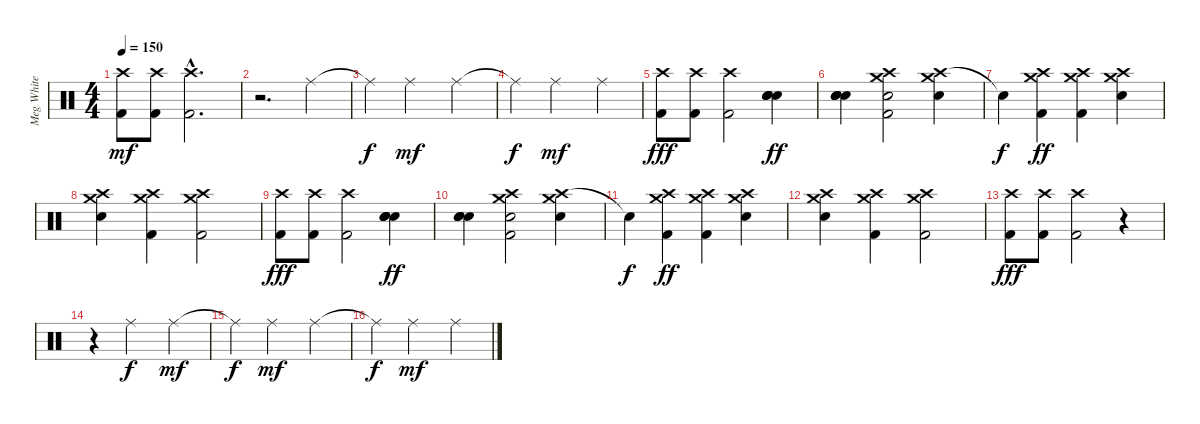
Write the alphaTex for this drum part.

\track ("Meg White" "Meg White") {instrument percussion}
\staff {score}
\articulation defaults
\ts (4 4)
\tempo 150
\clef neutral
\ks c
("Crash high (hit)" "Kick (hit) 2").8{dy mf} ("Crash high (hit)" "Kick (hit) 2").8 ("Crash high (hit)"{hac} "Kick (hit) 2"{hac}).2{d} |
r.2{d} "Ride (middle)".4 |
"Ride (middle)"{t}.4{dy f} "Ride (middle)".2{dy mf} "Ride (middle)".4 |
"Ride (middle)"{t}.4{dy f} "Ride (middle)".2{dy mf} "Ride (middle)".4 |
("Crash high (hit)" "Kick (hit) 2").8{dy fff} ("Crash high (hit)" "Kick (hit) 2").8 ("Crash high (hit)" "Kick (hit) 2").2 ("Snare (hit) 2" "Snare (hit) 2" "Electric Snare (hit)" "Electric Snare (hit)").4{dy ff} |
("Snare (hit) 2" "Snare (hit) 2" "Electric Snare (hit)" "Electric Snare (hit)").4 ("Crash high (hit)" "Crash medium (hit)" "Kick (hit) 2" "Electric Snare (hit)").2 ("Crash high (hit)" "Crash medium (hit)" "Electric Snare (hit)").4 |
"Snare (hit)"{t}.4{dy f} ("Crash high (hit)" "Crash medium (hit)" "Kick (hit) 2").4{dy ff} ("Crash high (hit)" "Crash medium (hit)" "Kick (hit) 2").4 ("Crash high (hit)" "Crash medium (hit)" "Electric Snare (hit)").4 |
("Crash high (hit)" "Crash medium (hit)" "Electric Snare (hit)").4 ("Crash high (hit)" "Crash medium (hit)" "Kick (hit) 2").4 ("Crash high (hit)" "Crash medium (hit)" "Kick (hit) 2").2 |
("Crash high (hit)" "Kick (hit) 2").8{dy fff} ("Crash high (hit)" "Kick (hit) 2").8 ("Crash high (hit)" "Kick (hit) 2").2 ("Snare (hit) 2" "Snare (hit) 2" "Electric Snare (hit)" "Electric Snare (hit)").4{dy ff} |
("Snare (hit) 2" "Snare (hit) 2" "Electric Snare (hit)" "Electric Snare (hit)").4 ("Crash high (hit)" "Crash medium (hit)" "Kick (hit) 2" "Electric Snare (hit)").2 ("Crash high (hit)" "Crash medium (hit)" "Electric Snare (hit)").4 |
"Snare (hit)"{t}.4{dy f} ("Crash high (hit)" "Crash medium (hit)" "Kick (hit) 2").4{dy ff} ("Crash high (hit)" "Crash medium (hit)" "Kick (hit) 2").4 ("Crash high (hit)" "Crash medium (hit)" "Electric Snare (hit)").4 |
("Crash high (hit)" "Crash medium (hit)" "Electric Snare (hit)").4 ("Crash high (hit)" "Crash medium (hit)" "Kick (hit) 2").4 ("Crash high (hit)" "Crash medium (hit)" "Kick (hit) 2").2 |
("Crash high (hit)" "Kick (hit) 2").8{dy fff} ("Crash high (hit)" "Kick (hit) 2").8 ("Crash high (hit)" "Kick (hit) 2").2 r.4 |
r.4 "Ride (middle)".2{dy f} "Ride (middle)".4{dy mf} |
"Ride (middle)"{t}.4{dy f} "Ride (middle)".2{dy mf} "Ride (middle)".4 |
"Ride (middle)"{t}.4{dy f} "Ride (middle)".2{dy mf} "Ride (middle)".4
